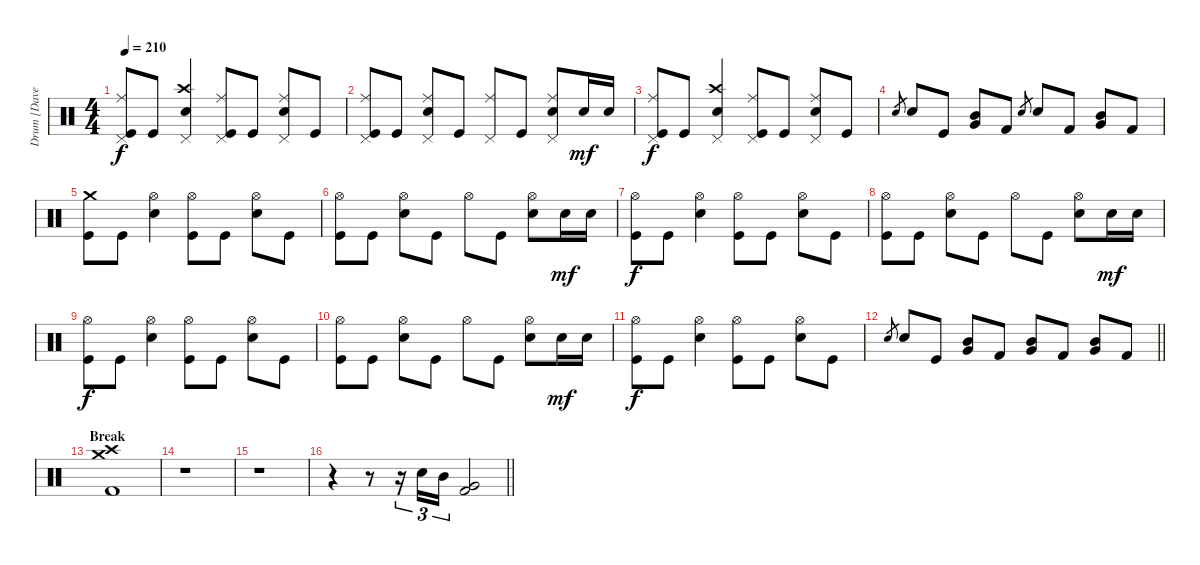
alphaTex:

\track ("Drum [Dave Grohl]" "Drum [Dave") {instrument percussion bank 84}
\staff {score}
\articulation defaults
\ts (4 4)
\tempo 210
\clef neutral
\ks c
("Pedal Hi-Hat (hit)" "Ride (middle)" "Kick (hit)").8{dy f} "Kick (hit)".8 ("Pedal Hi-Hat (hit)" "Crash high (hit)" "Electric Snare (hit)").4 ("Pedal Hi-Hat (hit)" "Ride (middle)" "Kick (hit)").8 "Kick (hit)".8 ("Pedal Hi-Hat (hit)" "Ride (middle)" "Electric Snare (hit)").8 "Kick (hit)".8 |
("Pedal Hi-Hat (hit)" "Ride (middle)" "Kick (hit)").8 "Kick (hit)".8 ("Pedal Hi-Hat (hit)" "Ride (middle)" "Electric Snare (hit)").8 "Kick (hit)".8 ("Pedal Hi-Hat (hit)" "Ride (middle)").8 "Kick (hit)".8 ("Pedal Hi-Hat (hit)" "Ride (middle)" "Electric Snare (hit)").8 "Electric Snare (hit)".16{dy mf} "Electric Snare (hit)".16 |
("Pedal Hi-Hat (hit)" "Ride (middle)" "Kick (hit)").8{dy f} "Kick (hit)".8 ("Pedal Hi-Hat (hit)" "Crash high (hit)" "Electric Snare (hit)").4 ("Pedal Hi-Hat (hit)" "Ride (middle)" "Kick (hit)").8 "Kick (hit)".8 ("Pedal Hi-Hat (hit)" "Ride (middle)" "Electric Snare (hit)").8 "Kick (hit)".8 |
"Electric Snare (hit)".8{gr} "Electric Snare (hit)".8 "Kick (hit)".8 ("Mid Tom (hit)" "Very Low Tom (hit)").8 "Kick (hit) 2".8 "Electric Snare (hit)".8{gr} "Electric Snare (hit)".8 "Kick (hit) 2".8 ("Mid Tom (hit)" "Very Low Tom (hit)").8 "Kick (hit) 2".8 |
("Crash medium (hit)" "Kick (hit)").8 "Kick (hit)".8 ("Hi-Hat (open)" "Electric Snare (hit)").4 ("Hi-Hat (open)" "Kick (hit)").8 "Kick (hit)".8 ("Hi-Hat (open)" "Electric Snare (hit)").8 "Kick (hit)".8 |
("Hi-Hat (open)" "Kick (hit)").8 "Kick (hit)".8 ("Hi-Hat (open)" "Electric Snare (hit)").8 "Kick (hit)".8 "Hi-Hat (open)".8 "Kick (hit)".8 ("Hi-Hat (open)" "Electric Snare (hit)").8 "Electric Snare (hit)".16{dy mf} "Electric Snare (hit)".16 |
("Hi-Hat (open)" "Kick (hit)").8{dy f} "Kick (hit)".8 ("Hi-Hat (open)" "Electric Snare (hit)").4 ("Hi-Hat (open)" "Kick (hit)").8 "Kick (hit)".8 ("Hi-Hat (open)" "Electric Snare (hit)").8 "Kick (hit)".8 |
("Hi-Hat (open)" "Kick (hit)").8 "Kick (hit)".8 ("Hi-Hat (open)" "Electric Snare (hit)").8 "Kick (hit)".8 "Hi-Hat (open)".8 "Kick (hit)".8 ("Hi-Hat (open)" "Electric Snare (hit)").8 "Electric Snare (hit)".16{dy mf} "Electric Snare (hit)".16 |
("Hi-Hat (open)" "Kick (hit)").8{dy f} "Kick (hit)".8 ("Hi-Hat (open)" "Electric Snare (hit)").4 ("Hi-Hat (open)" "Kick (hit)").8 "Kick (hit)".8 ("Hi-Hat (open)" "Electric Snare (hit)").8 "Kick (hit)".8 |
("Hi-Hat (open)" "Kick (hit)").8 "Kick (hit)".8 ("Hi-Hat (open)" "Electric Snare (hit)").8 "Kick (hit)".8 "Hi-Hat (open)".8 "Kick (hit)".8 ("Hi-Hat (open)" "Electric Snare (hit)").8 "Electric Snare (hit)".16{dy mf} "Electric Snare (hit)".16 |
("Hi-Hat (open)" "Kick (hit)").8{dy f} "Kick (hit)".8 ("Hi-Hat (open)" "Electric Snare (hit)").4 ("Hi-Hat (open)" "Kick (hit)").8 "Kick (hit)".8 ("Hi-Hat (open)" "Electric Snare (hit)").8 "Kick (hit)".8 |
\barLineRight lightlight "Electric Snare (hit)".8{gr} "Electric Snare (hit)".8 "Kick (hit)".8
("Mid Tom (hit)" "Very Low Tom (hit)").8 "Kick (hit) 2".8 ("Mid Tom (hit)" "Very Low Tom (hit)").8 "Kick (hit) 2".8 ("Mid Tom (hit)" "Very Low Tom (hit)").8 "Kick (hit) 2".8 |
\section ("" "Break")
("Crash high (hit)" "Crash medium (hit)" "Kick (hit) 2").1 |
r.1 |
r.1 |
\barLineRight lightlight
r.4 r.8 r.16{tu (3 2)} "Electric Snare (hit)".16{tu (3 2)} "Mid Tom (hit)".16{tu (3 2)} ("Very Low Tom (hit)" "Kick (hit) 2").2
